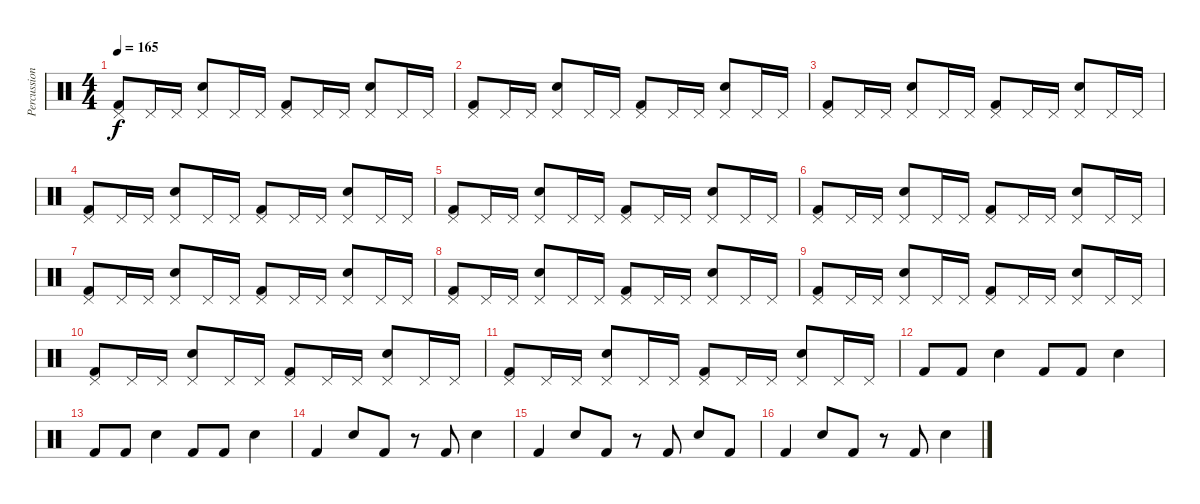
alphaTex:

\track ("Percussion" "Percussion") {instrument percussion}
\staff {score}
\articulation defaults
\ts (4 4)
\tempo 165
\clef neutral
\ks c
("Pedal Hi-Hat (hit)" "Kick (hit) 2").8{dy f} "Pedal Hi-Hat (hit)".16 "Pedal Hi-Hat (hit)".16 ("Pedal Hi-Hat (hit)" "Snare (hit) 2").8 "Pedal Hi-Hat (hit)".16 "Pedal Hi-Hat (hit)".16 ("Pedal Hi-Hat (hit)" "Kick (hit) 2").8 "Pedal Hi-Hat (hit)".16 "Pedal Hi-Hat (hit)".16 ("Pedal Hi-Hat (hit)" "Snare (hit) 2").8 "Pedal Hi-Hat (hit)".16 "Pedal Hi-Hat (hit)".16 |
("Pedal Hi-Hat (hit)" "Kick (hit) 2").8 "Pedal Hi-Hat (hit)".16 "Pedal Hi-Hat (hit)".16 ("Pedal Hi-Hat (hit)" "Snare (hit) 2").8 "Pedal Hi-Hat (hit)".16 "Pedal Hi-Hat (hit)".16 ("Pedal Hi-Hat (hit)" "Kick (hit) 2").8 "Pedal Hi-Hat (hit)".16 "Pedal Hi-Hat (hit)".16 ("Pedal Hi-Hat (hit)" "Snare (hit) 2").8 "Pedal Hi-Hat (hit)".16 "Pedal Hi-Hat (hit)".16 |
("Pedal Hi-Hat (hit)" "Kick (hit) 2").8 "Pedal Hi-Hat (hit)".16 "Pedal Hi-Hat (hit)".16 ("Pedal Hi-Hat (hit)" "Snare (hit) 2").8 "Pedal Hi-Hat (hit)".16 "Pedal Hi-Hat (hit)".16 ("Pedal Hi-Hat (hit)" "Kick (hit) 2").8 "Pedal Hi-Hat (hit)".16 "Pedal Hi-Hat (hit)".16 ("Pedal Hi-Hat (hit)" "Snare (hit) 2").8 "Pedal Hi-Hat (hit)".16 "Pedal Hi-Hat (hit)".16 |
("Pedal Hi-Hat (hit)" "Kick (hit) 2").8 "Pedal Hi-Hat (hit)".16 "Pedal Hi-Hat (hit)".16 ("Pedal Hi-Hat (hit)" "Snare (hit) 2").8 "Pedal Hi-Hat (hit)".16 "Pedal Hi-Hat (hit)".16 ("Pedal Hi-Hat (hit)" "Kick (hit) 2").8 "Pedal Hi-Hat (hit)".16 "Pedal Hi-Hat (hit)".16 ("Pedal Hi-Hat (hit)" "Snare (hit) 2").8 "Pedal Hi-Hat (hit)".16 "Pedal Hi-Hat (hit)".16 |
("Pedal Hi-Hat (hit)" "Kick (hit) 2").8 "Pedal Hi-Hat (hit)".16 "Pedal Hi-Hat (hit)".16 ("Pedal Hi-Hat (hit)" "Snare (hit) 2").8 "Pedal Hi-Hat (hit)".16 "Pedal Hi-Hat (hit)".16 ("Pedal Hi-Hat (hit)" "Kick (hit) 2").8 "Pedal Hi-Hat (hit)".16 "Pedal Hi-Hat (hit)".16 ("Pedal Hi-Hat (hit)" "Snare (hit) 2").8 "Pedal Hi-Hat (hit)".16 "Pedal Hi-Hat (hit)".16 |
("Pedal Hi-Hat (hit)" "Kick (hit) 2").8 "Pedal Hi-Hat (hit)".16 "Pedal Hi-Hat (hit)".16 ("Pedal Hi-Hat (hit)" "Snare (hit) 2").8 "Pedal Hi-Hat (hit)".16 "Pedal Hi-Hat (hit)".16 ("Pedal Hi-Hat (hit)" "Kick (hit) 2").8 "Pedal Hi-Hat (hit)".16 "Pedal Hi-Hat (hit)".16 ("Pedal Hi-Hat (hit)" "Snare (hit) 2").8 "Pedal Hi-Hat (hit)".16 "Pedal Hi-Hat (hit)".16 |
("Pedal Hi-Hat (hit)" "Kick (hit) 2").8 "Pedal Hi-Hat (hit)".16 "Pedal Hi-Hat (hit)".16 ("Pedal Hi-Hat (hit)" "Snare (hit) 2").8 "Pedal Hi-Hat (hit)".16 "Pedal Hi-Hat (hit)".16 ("Pedal Hi-Hat (hit)" "Kick (hit) 2").8 "Pedal Hi-Hat (hit)".16 "Pedal Hi-Hat (hit)".16 ("Pedal Hi-Hat (hit)" "Snare (hit) 2").8 "Pedal Hi-Hat (hit)".16 "Pedal Hi-Hat (hit)".16 |
("Pedal Hi-Hat (hit)" "Kick (hit) 2").8 "Pedal Hi-Hat (hit)".16 "Pedal Hi-Hat (hit)".16 ("Pedal Hi-Hat (hit)" "Snare (hit) 2").8 "Pedal Hi-Hat (hit)".16 "Pedal Hi-Hat (hit)".16 ("Pedal Hi-Hat (hit)" "Kick (hit) 2").8 "Pedal Hi-Hat (hit)".16 "Pedal Hi-Hat (hit)".16 ("Pedal Hi-Hat (hit)" "Snare (hit) 2").8 "Pedal Hi-Hat (hit)".16 "Pedal Hi-Hat (hit)".16 |
("Pedal Hi-Hat (hit)" "Kick (hit) 2").8 "Pedal Hi-Hat (hit)".16 "Pedal Hi-Hat (hit)".16 ("Pedal Hi-Hat (hit)" "Snare (hit) 2").8 "Pedal Hi-Hat (hit)".16 "Pedal Hi-Hat (hit)".16 ("Pedal Hi-Hat (hit)" "Kick (hit) 2").8 "Pedal Hi-Hat (hit)".16 "Pedal Hi-Hat (hit)".16 ("Pedal Hi-Hat (hit)" "Snare (hit) 2").8 "Pedal Hi-Hat (hit)".16 "Pedal Hi-Hat (hit)".16 |
("Pedal Hi-Hat (hit)" "Kick (hit) 2").8 "Pedal Hi-Hat (hit)".16 "Pedal Hi-Hat (hit)".16 ("Pedal Hi-Hat (hit)" "Snare (hit) 2").8 "Pedal Hi-Hat (hit)".16 "Pedal Hi-Hat (hit)".16 ("Pedal Hi-Hat (hit)" "Kick (hit) 2").8 "Pedal Hi-Hat (hit)".16 "Pedal Hi-Hat (hit)".16 ("Pedal Hi-Hat (hit)" "Snare (hit) 2").8 "Pedal Hi-Hat (hit)".16 "Pedal Hi-Hat (hit)".16 |
("Pedal Hi-Hat (hit)" "Kick (hit) 2").8 "Pedal Hi-Hat (hit)".16 "Pedal Hi-Hat (hit)".16 ("Pedal Hi-Hat (hit)" "Snare (hit) 2").8 "Pedal Hi-Hat (hit)".16 "Pedal Hi-Hat (hit)".16 ("Pedal Hi-Hat (hit)" "Kick (hit) 2").8 "Pedal Hi-Hat (hit)".16 "Pedal Hi-Hat (hit)".16 ("Pedal Hi-Hat (hit)" "Snare (hit) 2").8 "Pedal Hi-Hat (hit)".16 "Pedal Hi-Hat (hit)".16 |
"Kick (hit) 2".8 "Kick (hit) 2".8 "Snare (hit) 2".4 "Kick (hit) 2".8 "Kick (hit) 2".8 "Snare (hit) 2".4 |
"Kick (hit) 2".8 "Kick (hit) 2".8 "Snare (hit) 2".4 "Kick (hit) 2".8 "Kick (hit) 2".8 "Snare (hit) 2".4 |
"Kick (hit) 2".4 "Snare (hit) 2".8 "Kick (hit) 2".8 r.8 "Kick (hit) 2".8 "Snare (hit) 2".4 |
"Kick (hit) 2".4 "Snare (hit) 2".8 "Kick (hit) 2".8 r.8 "Kick (hit) 2".8 "Snare (hit) 2".8 "Kick (hit) 2".8 |
"Kick (hit) 2".4 "Snare (hit) 2".8 "Kick (hit) 2".8 r.8 "Kick (hit) 2".8 "Snare (hit) 2".4
